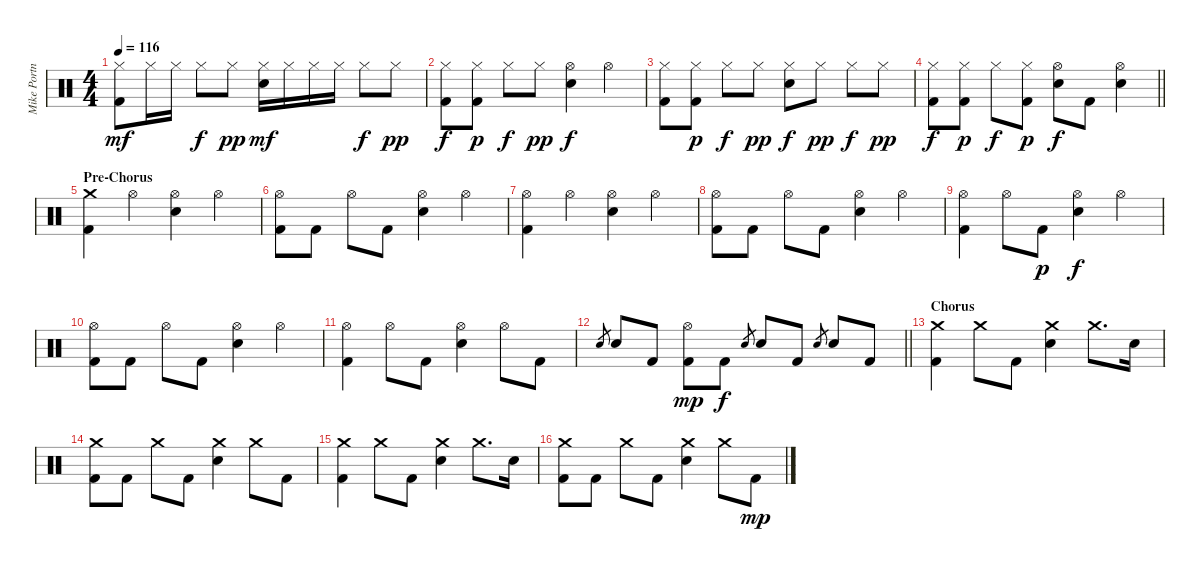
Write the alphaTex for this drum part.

\track ("Mike Portnoy [Drums]" "Mike Portn") {instrument percussion}
\staff {score}
\articulation defaults
\ts (4 4)
\tempo 116
\clef neutral
\ks c
("Hi-Hat (closed)" "Kick (hit) 2").8{dy mf} "Hi-Hat (closed)".16 "Hi-Hat (closed)".16 "Hi-Hat (closed)".8{dy f} "Hi-Hat (closed)".8{dy pp} ("Hi-Hat (closed)" "Electric Snare (hit)").16{dy mf} "Hi-Hat (closed)".16 "Hi-Hat (closed)".16 "Hi-Hat (closed)".16 "Hi-Hat (closed)".8{dy f} "Hi-Hat (closed)".8{dy pp} |
("Hi-Hat (closed)" "Kick (hit) 2").8{dy f} ("Hi-Hat (closed)" "Kick (hit) 2").8{dy p} "Hi-Hat (closed)".8{dy f} "Hi-Hat (closed)".8{dy pp} ("Hi-Hat (open)" "Electric Snare (hit)").4{dy f} "Hi-Hat (open)".4 |
("Hi-Hat (closed)" "Kick (hit) 2").8 ("Hi-Hat (closed)" "Kick (hit) 2").8{dy p} "Hi-Hat (closed)".8{dy f} "Hi-Hat (closed)".8{dy pp} ("Hi-Hat (closed)" "Electric Snare (hit)").8{dy f} "Hi-Hat (closed)".8{dy pp} "Hi-Hat (closed)".8{dy f} "Hi-Hat (closed)".8{dy pp} |
\barLineRight lightlight
("Hi-Hat (closed)" "Kick (hit) 2").8{dy f} ("Hi-Hat (closed)" "Kick (hit) 2").8{dy p} "Hi-Hat (closed)".8{dy f} ("Hi-Hat (closed)" "Kick (hit) 2").8{dy p} ("Hi-Hat (open)" "Electric Snare (hit)").8{dy f} "Kick (hit) 2".8 ("Hi-Hat (open)" "Electric Snare (hit)").4 |
\section ("" "Pre-Chorus")
("Crash medium (hit)" "Kick (hit) 2").4 "Hi-Hat (open)".4 ("Hi-Hat (open)" "Electric Snare (hit)").4 "Hi-Hat (open)".4 |
("Hi-Hat (open)" "Kick (hit) 2").8 "Kick (hit) 2".8 "Hi-Hat (open)".8 "Kick (hit) 2".8 ("Hi-Hat (open)" "Electric Snare (hit)").4 "Hi-Hat (open)".4 |
("Hi-Hat (open)" "Kick (hit) 2").4 "Hi-Hat (open)".4 ("Hi-Hat (open)" "Electric Snare (hit)").4 "Hi-Hat (open)".4 |
("Hi-Hat (open)" "Kick (hit) 2").8 "Kick (hit) 2".8 "Hi-Hat (open)".8 "Kick (hit) 2".8 ("Hi-Hat (open)" "Electric Snare (hit)").4 "Hi-Hat (open)".4 |
("Hi-Hat (open)" "Kick (hit) 2").4 "Hi-Hat (open)".8 "Kick (hit) 2".8{dy p} ("Hi-Hat (open)" "Electric Snare (hit)").4{dy f} "Hi-Hat (open)".4 |
("Hi-Hat (open)" "Kick (hit) 2").8 "Kick (hit) 2".8 "Hi-Hat (open)".8 "Kick (hit) 2".8 ("Hi-Hat (open)" "Electric Snare (hit)").4 "Hi-Hat (open)".4 |
("Hi-Hat (open)" "Kick (hit) 2").4 "Hi-Hat (open)".8 "Kick (hit) 2".8 ("Hi-Hat (open)" "Electric Snare (hit)").4 "Hi-Hat (open)".8 "Kick (hit) 2".8 |
\barLineRight lightlight "Electric Snare (hit)".8{gr} "Electric Snare (hit)".8 "Kick (hit) 2".8
("Hi-Hat (open)" "Kick (hit) 2").8{dy mp} "Kick (hit) 2".8{dy f} "Electric Snare (hit)".8{gr} "Electric Snare (hit)".8 "Kick (hit) 2".8 "Electric Snare (hit)".8{gr} "Electric Snare (hit)".8 "Kick (hit) 2".8 |
\section ("" "Chorus")
("Crash medium (hit)" "Kick (hit) 2").4 "Crash medium (hit)".8 "Kick (hit) 2".8 ("Crash medium (hit)" "Electric Snare (hit)").4 "Crash medium (hit)".8{d} "Electric Snare (hit)".16 |
("Crash medium (hit)" "Kick (hit) 2").8 "Kick (hit) 2".8 "Crash medium (hit)".8 "Kick (hit) 2".8 ("Crash medium (hit)" "Electric Snare (hit)").4 "Crash medium (hit)".8 "Kick (hit) 2".8 |
("Crash medium (hit)" "Kick (hit) 2").4 "Crash medium (hit)".8 "Kick (hit) 2".8 ("Crash medium (hit)" "Electric Snare (hit)").4 "Crash medium (hit)".8{d} "Electric Snare (hit)".16 |
("Crash medium (hit)" "Kick (hit) 2").8 "Kick (hit) 2".8 "Crash medium (hit)".8 "Kick (hit) 2".8 ("Crash medium (hit)" "Electric Snare (hit)").4 "Crash medium (hit)".8 "Kick (hit) 2".8{dy mp}
